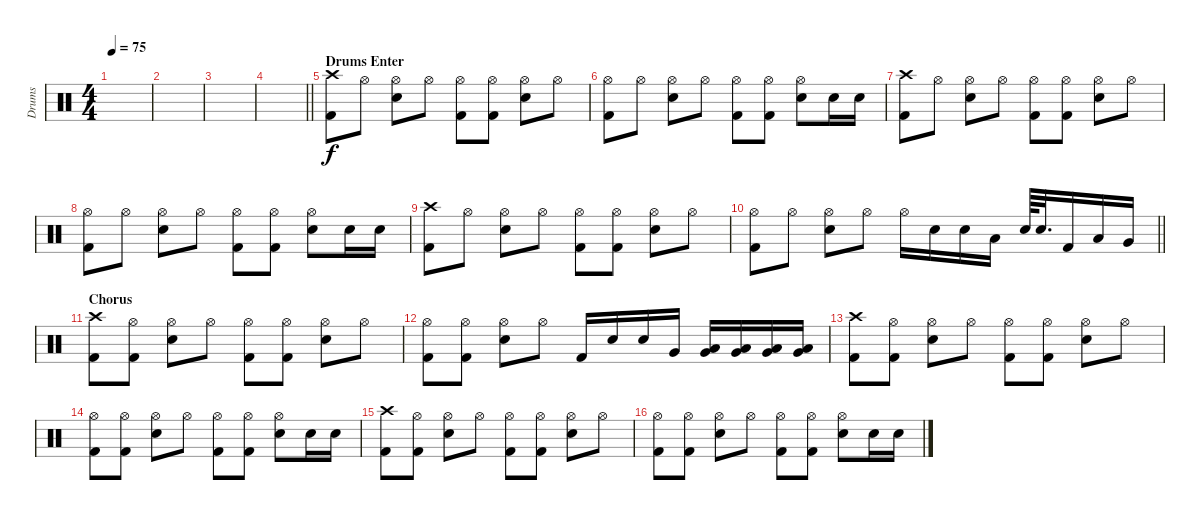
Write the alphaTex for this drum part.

\track ("Drums" "Drums") {instrument percussion}
\staff {score}
\articulation defaults
\ts (4 4)
\tempo 75
\clef neutral
\ks c
|
|
|
\barLineRight lightlight
|
\section ("" "Drums Enter")
("Crash high (hit)" "Kick (hit) 2").8 "Hi-Hat (open)".8 ("Hi-Hat (open)" "Snare (hit) 2").8 "Hi-Hat (open)".8 ("Hi-Hat (open)" "Kick (hit) 2").8 ("Hi-Hat (open)" "Kick (hit) 2").8 ("Hi-Hat (open)" "Snare (hit) 2").8 "Hi-Hat (open)".8 |
("Hi-Hat (open)" "Kick (hit) 2").8 "Hi-Hat (open)".8 ("Hi-Hat (open)" "Snare (hit) 2").8 "Hi-Hat (open)".8 ("Hi-Hat (open)" "Kick (hit) 2").8 ("Hi-Hat (open)" "Kick (hit) 2").8 ("Hi-Hat (open)" "Snare (hit) 2").8 "Snare (hit) 2".16 "Snare (hit) 2".16 |
("Crash high (hit)" "Kick (hit) 2").8 "Hi-Hat (open)".8 ("Hi-Hat (open)" "Snare (hit) 2").8 "Hi-Hat (open)".8 ("Hi-Hat (open)" "Kick (hit) 2").8 ("Hi-Hat (open)" "Kick (hit) 2").8 ("Hi-Hat (open)" "Snare (hit) 2").8 "Hi-Hat (open)".8 |
("Hi-Hat (open)" "Kick (hit) 2").8 "Hi-Hat (open)".8 ("Hi-Hat (open)" "Snare (hit) 2").8 "Hi-Hat (open)".8 ("Hi-Hat (open)" "Kick (hit) 2").8 ("Hi-Hat (open)" "Kick (hit) 2").8 ("Hi-Hat (open)" "Snare (hit) 2").8 "Snare (hit) 2".16 "Snare (hit) 2".16 |
("Crash high (hit)" "Kick (hit) 2").8 "Hi-Hat (open)".8 ("Hi-Hat (open)" "Snare (hit) 2").8 "Hi-Hat (open)".8 ("Hi-Hat (open)" "Kick (hit) 2").8 ("Hi-Hat (open)" "Kick (hit) 2").8 ("Hi-Hat (open)" "Snare (hit) 2").8 "Hi-Hat (open)".8 |
\barLineRight lightlight
("Hi-Hat (open)" "Kick (hit) 2").8 "Hi-Hat (open)".8 ("Hi-Hat (open)" "Snare (hit) 2").8 "Hi-Hat (open)".8 "Hi-Hat (open)".16 "Snare (hit) 2".16 "Snare (hit) 2".16 "Low Tom (hit)".16 "Snare (hit) 2".64 "Snare (hit) 2".32{d} "Kick (hit) 2".16 "Low Tom (hit)".16 "Very Low Tom (hit)".16 |
\section ("" "Chorus")
("Crash high (hit)" "Kick (hit) 2").8 ("Hi-Hat (open)" "Kick (hit) 2").8 ("Hi-Hat (open)" "Snare (hit) 2").8 "Hi-Hat (open)".8 ("Hi-Hat (open)" "Kick (hit) 2").8 ("Hi-Hat (open)" "Kick (hit) 2").8 ("Hi-Hat (open)" "Snare (hit) 2").8 "Hi-Hat (open)".8 |
("Hi-Hat (open)" "Kick (hit) 2").8 ("Hi-Hat (open)" "Kick (hit) 2").8 ("Hi-Hat (open)" "Snare (hit) 2").8 "Hi-Hat (open)".8 "Kick (hit) 2".16 "Snare (hit) 2".16 "Snare (hit) 2".16 "Very Low Tom (hit)".16 ("Low Tom (hit)" "Very Low Tom (hit)").16 ("Low Tom (hit)" "Very Low Tom (hit)").16 ("Very Low Tom (hit)" "Low Floor Tom (hit)").16 ("Very Low Tom (hit)" "Low Floor Tom (hit)").16 |
("Crash high (hit)" "Kick (hit) 2").8 ("Hi-Hat (open)" "Kick (hit) 2").8 ("Hi-Hat (open)" "Snare (hit) 2").8 "Hi-Hat (open)".8 ("Hi-Hat (open)" "Kick (hit) 2").8 ("Hi-Hat (open)" "Kick (hit) 2").8 ("Hi-Hat (open)" "Snare (hit) 2").8 "Hi-Hat (open)".8 |
("Hi-Hat (open)" "Kick (hit) 2").8 ("Hi-Hat (open)" "Kick (hit) 2").8 ("Hi-Hat (open)" "Snare (hit) 2").8 "Hi-Hat (open)".8 ("Hi-Hat (open)" "Kick (hit) 2").8 ("Hi-Hat (open)" "Kick (hit) 2").8 ("Hi-Hat (open)" "Snare (hit) 2").8 "Snare (hit) 2".16 "Snare (hit) 2".16 |
("Crash high (hit)" "Kick (hit) 2").8 ("Hi-Hat (open)" "Kick (hit) 2").8 ("Hi-Hat (open)" "Snare (hit) 2").8 "Hi-Hat (open)".8 ("Hi-Hat (open)" "Kick (hit) 2").8 ("Hi-Hat (open)" "Kick (hit) 2").8 ("Hi-Hat (open)" "Snare (hit) 2").8 "Hi-Hat (open)".8 |
("Hi-Hat (open)" "Kick (hit) 2").8 ("Hi-Hat (open)" "Kick (hit) 2").8 ("Hi-Hat (open)" "Snare (hit) 2").8 "Hi-Hat (open)".8 ("Hi-Hat (open)" "Kick (hit) 2").8 ("Hi-Hat (open)" "Kick (hit) 2").8 ("Hi-Hat (open)" "Snare (hit) 2").8 "Snare (hit) 2".16 "Snare (hit) 2".16
